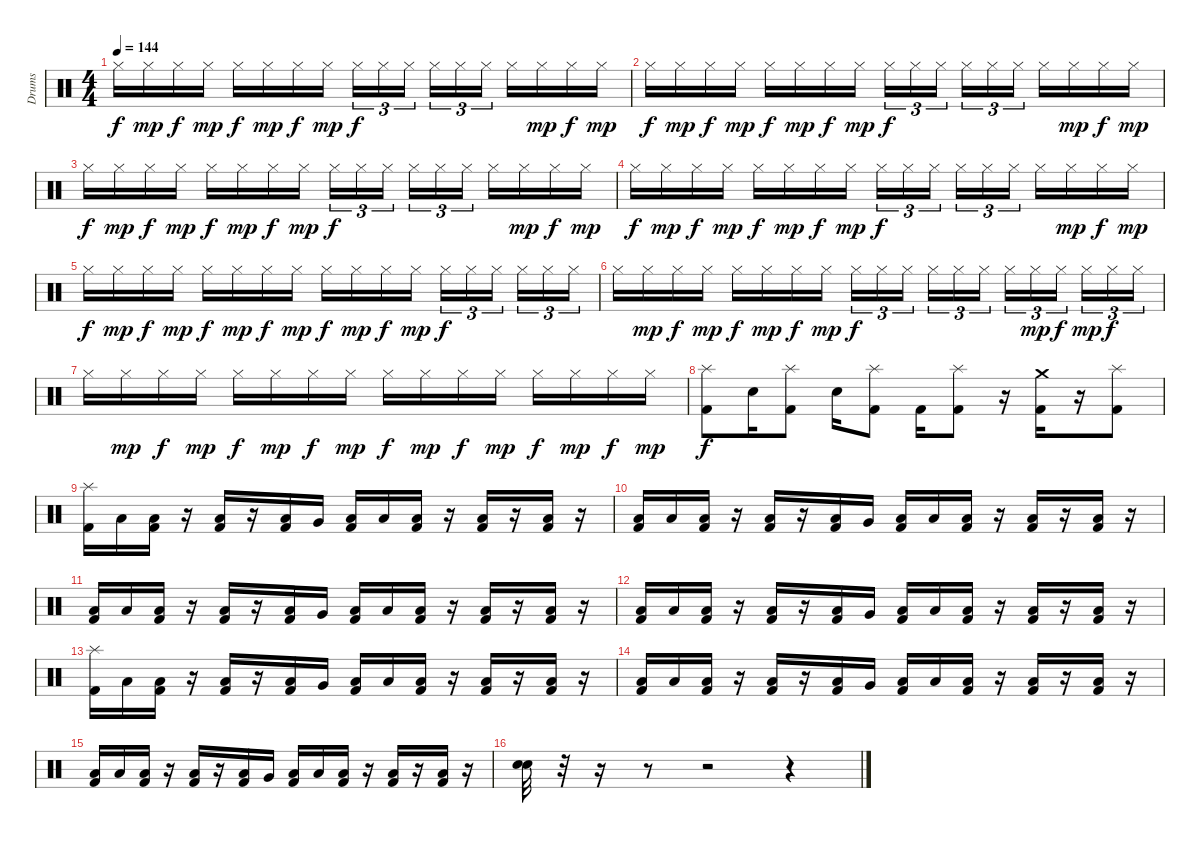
\track ("Drums" "Drums") {instrument percussion}
\staff {score}
\articulation defaults
\ts (4 4)
\tempo 144
\clef neutral
\ks c "Hi-Hat (closed)".16{dy f} "Hi-Hat (closed)".16{dy mp} "Hi-Hat (closed)".16{dy f} "Hi-Hat (closed)".16{dy mp} "Hi-Hat (closed)".16{dy f} "Hi-Hat (closed)".16{dy mp} "Hi-Hat (closed)".16{dy f} "Hi-Hat (closed)".16{dy mp} "Hi-Hat (closed)".16{tu (3 2) dy f} "Hi-Hat (closed)".16{tu (3 2)} "Hi-Hat (closed)".16{tu (3 2)} "Hi-Hat (closed)".16{tu (3 2)} "Hi-Hat (closed)".16{tu (3 2)} "Hi-Hat (closed)".16{tu (3 2)} "Hi-Hat (closed)".16 "Hi-Hat (closed)".16{dy mp} "Hi-Hat (closed)".16{dy f} "Hi-Hat (closed)".16{dy mp}
|
"Hi-Hat (closed)".16{dy f} "Hi-Hat (closed)".16{dy mp} "Hi-Hat (closed)".16{dy f} "Hi-Hat (closed)".16{dy mp} "Hi-Hat (closed)".16{dy f} "Hi-Hat (closed)".16{dy mp} "Hi-Hat (closed)".16{dy f} "Hi-Hat (closed)".16{dy mp} "Hi-Hat (closed)".16{tu (3 2) dy f} "Hi-Hat (closed)".16{tu (3 2)} "Hi-Hat (closed)".16{tu (3 2)} "Hi-Hat (closed)".16{tu (3 2)} "Hi-Hat (closed)".16{tu (3 2)} "Hi-Hat (closed)".16{tu (3 2)} "Hi-Hat (closed)".16 "Hi-Hat (closed)".16{dy mp} "Hi-Hat (closed)".16{dy f} "Hi-Hat (closed)".16{dy mp} |
"Hi-Hat (closed)".16{dy f} "Hi-Hat (closed)".16{dy mp} "Hi-Hat (closed)".16{dy f} "Hi-Hat (closed)".16{dy mp} "Hi-Hat (closed)".16{dy f} "Hi-Hat (closed)".16{dy mp} "Hi-Hat (closed)".16{dy f} "Hi-Hat (closed)".16{dy mp} "Hi-Hat (closed)".16{tu (3 2) dy f} "Hi-Hat (closed)".16{tu (3 2)} "Hi-Hat (closed)".16{tu (3 2)} "Hi-Hat (closed)".16{tu (3 2)} "Hi-Hat (closed)".16{tu (3 2)} "Hi-Hat (closed)".16{tu (3 2)} "Hi-Hat (closed)".16 "Hi-Hat (closed)".16{dy mp} "Hi-Hat (closed)".16{dy f} "Hi-Hat (closed)".16{dy mp} |
"Hi-Hat (closed)".16{dy f} "Hi-Hat (closed)".16{dy mp} "Hi-Hat (closed)".16{dy f} "Hi-Hat (closed)".16{dy mp} "Hi-Hat (closed)".16{dy f} "Hi-Hat (closed)".16{dy mp} "Hi-Hat (closed)".16{dy f} "Hi-Hat (closed)".16{dy mp} "Hi-Hat (closed)".16{tu (3 2) dy f} "Hi-Hat (closed)".16{tu (3 2)} "Hi-Hat (closed)".16{tu (3 2)} "Hi-Hat (closed)".16{tu (3 2)} "Hi-Hat (closed)".16{tu (3 2)} "Hi-Hat (closed)".16{tu (3 2)} "Hi-Hat (closed)".16 "Hi-Hat (closed)".16{dy mp} "Hi-Hat (closed)".16{dy f} "Hi-Hat (closed)".16{dy mp} |
"Hi-Hat (closed)".16{dy f} "Hi-Hat (closed)".16{dy mp} "Hi-Hat (closed)".16{dy f} "Hi-Hat (closed)".16{dy mp} "Hi-Hat (closed)".16{dy f} "Hi-Hat (closed)".16{dy mp} "Hi-Hat (closed)".16{dy f} "Hi-Hat (closed)".16{dy mp} "Hi-Hat (closed)".16{dy f} "Hi-Hat (closed)".16{dy mp} "Hi-Hat (closed)".16{dy f} "Hi-Hat (closed)".16{dy mp} "Hi-Hat (closed)".16{tu (3 2) dy f} "Hi-Hat (closed)".16{tu (3 2)} "Hi-Hat (closed)".16{tu (3 2)} "Hi-Hat (closed)".16{tu (3 2)} "Hi-Hat (closed)".16{tu (3 2)} "Hi-Hat (closed)".16{tu (3 2)} |
"Hi-Hat (closed)".16 "Hi-Hat (closed)".16{dy mp} "Hi-Hat (closed)".16{dy f} "Hi-Hat (closed)".16{dy mp} "Hi-Hat (closed)".16{dy f} "Hi-Hat (closed)".16{dy mp} "Hi-Hat (closed)".16{dy f} "Hi-Hat (closed)".16{dy mp} "Hi-Hat (closed)".16{tu (3 2) dy f} "Hi-Hat (closed)".16{tu (3 2)} "Hi-Hat (closed)".16{tu (3 2)} "Hi-Hat (closed)".16{tu (3 2)} "Hi-Hat (closed)".16{tu (3 2)} "Hi-Hat (closed)".16{tu (3 2)} "Hi-Hat (closed)".16{tu (3 2)} "Hi-Hat (closed)".16{tu (3 2) dy mp} "Hi-Hat (closed)".16{tu (3 2) dy f} "Hi-Hat (closed)".16{tu (3 2) dy mp} "Hi-Hat (closed)".16{tu (3 2) dy f} "Hi-Hat (closed)".16{tu (3 2)} |
"Hi-Hat (closed)".16 "Hi-Hat (closed)".16{dy mp} "Hi-Hat (closed)".16{dy f} "Hi-Hat (closed)".16{dy mp} "Hi-Hat (closed)".16{dy f} "Hi-Hat (closed)".16{dy mp} "Hi-Hat (closed)".16{dy f} "Hi-Hat (closed)".16{dy mp} "Hi-Hat (closed)".16{dy f} "Hi-Hat (closed)".16{dy mp} "Hi-Hat (closed)".16{dy f} "Hi-Hat (closed)".16{dy mp} "Hi-Hat (closed)".16{dy f} "Hi-Hat (closed)".16{dy mp} "Hi-Hat (closed)".16{dy f} "Hi-Hat (closed)".16{dy mp} |
("Splash (hit)" "Kick (hit) 2").8{dy f} "Snare (hit) 2".16 ("Splash (hit)" "Kick (hit) 2").8 "Snare (hit) 2".16 ("Splash (hit)" "Kick (hit) 2").8 "Kick (hit) 2".16 ("Splash (hit)" "Kick (hit) 2").8 r.16 ("Crash medium (hit)" "Kick (hit) 2").16 r.16 ("Splash (hit)" "Kick (hit) 2").8 |
("Splash (hit)" "Kick (hit) 2").16 "Low Tom (hit)".16 ("Low Floor Tom (hit)" "Kick (hit) 2").16 r.16 ("Low Floor Tom (hit)" "Kick (hit) 2").16 r.16 ("Low Floor Tom (hit)" "Kick (hit) 2").16 "Very Low Tom (hit)".16 ("Low Floor Tom (hit)" "Kick (hit) 2").16 "Low Tom (hit)".16 ("Low Floor Tom (hit)" "Kick (hit) 2").16 r.16 ("Low Floor Tom (hit)" "Kick (hit) 2").16 r.16 ("Low Floor Tom (hit)" "Kick (hit) 2").16 r.16 |
("Low Floor Tom (hit)" "Kick (hit) 2").16 "Low Tom (hit)".16 ("Low Floor Tom (hit)" "Kick (hit) 2").16 r.16 ("Low Floor Tom (hit)" "Kick (hit) 2").16 r.16 ("Low Floor Tom (hit)" "Kick (hit) 2").16 "Very Low Tom (hit)".16 ("Low Floor Tom (hit)" "Kick (hit) 2").16 "Low Tom (hit)".16 ("Low Floor Tom (hit)" "Kick (hit) 2").16 r.16 ("Low Floor Tom (hit)" "Kick (hit) 2").16 r.16 ("Low Floor Tom (hit)" "Kick (hit) 2").16 r.16 |
("Low Floor Tom (hit)" "Kick (hit) 2").16 "Low Tom (hit)".16 ("Low Floor Tom (hit)" "Kick (hit) 2").16 r.16 ("Low Floor Tom (hit)" "Kick (hit) 2").16 r.16 ("Low Floor Tom (hit)" "Kick (hit) 2").16 "Very Low Tom (hit)".16 ("Low Floor Tom (hit)" "Kick (hit) 2").16 "Low Tom (hit)".16 ("Low Floor Tom (hit)" "Kick (hit) 2").16 r.16 ("Low Floor Tom (hit)" "Kick (hit) 2").16 r.16 ("Low Floor Tom (hit)" "Kick (hit) 2").16 r.16 |
("Low Floor Tom (hit)" "Kick (hit) 2").16 "Low Tom (hit)".16 ("Low Floor Tom (hit)" "Kick (hit) 2").16 r.16 ("Low Floor Tom (hit)" "Kick (hit) 2").16 r.16 ("Low Floor Tom (hit)" "Kick (hit) 2").16 "Very Low Tom (hit)".16 ("Low Floor Tom (hit)" "Kick (hit) 2").16 "Low Tom (hit)".16 ("Low Floor Tom (hit)" "Kick (hit) 2").16 r.16 ("Low Floor Tom (hit)" "Kick (hit) 2").16 r.16 ("Low Floor Tom (hit)" "Kick (hit) 2").16 r.16 |
("Splash (hit)" "Kick (hit) 2").16 "Low Tom (hit)".16 ("Low Floor Tom (hit)" "Kick (hit) 2").16 r.16 ("Low Floor Tom (hit)" "Kick (hit) 2").16 r.16 ("Low Floor Tom (hit)" "Kick (hit) 2").16 "Very Low Tom (hit)".16 ("Low Floor Tom (hit)" "Kick (hit) 2").16 "Low Tom (hit)".16 ("Low Floor Tom (hit)" "Kick (hit) 2").16 r.16 ("Low Floor Tom (hit)" "Kick (hit) 2").16 r.16 ("Low Floor Tom (hit)" "Kick (hit) 2").16 r.16 |
("Low Floor Tom (hit)" "Kick (hit) 2").16 "Low Tom (hit)".16 ("Low Floor Tom (hit)" "Kick (hit) 2").16 r.16 ("Low Floor Tom (hit)" "Kick (hit) 2").16 r.16 ("Low Floor Tom (hit)" "Kick (hit) 2").16 "Very Low Tom (hit)".16 ("Low Floor Tom (hit)" "Kick (hit) 2").16 "Low Tom (hit)".16 ("Low Floor Tom (hit)" "Kick (hit) 2").16 r.16 ("Low Floor Tom (hit)" "Kick (hit) 2").16 r.16 ("Low Floor Tom (hit)" "Kick (hit) 2").16 r.16 |
("Low Floor Tom (hit)" "Kick (hit) 2").16 "Low Tom (hit)".16 ("Low Floor Tom (hit)" "Kick (hit) 2").16 r.16 ("Low Floor Tom (hit)" "Kick (hit) 2").16 r.16 ("Low Floor Tom (hit)" "Kick (hit) 2").16 "Very Low Tom (hit)".16 ("Low Floor Tom (hit)" "Kick (hit) 2").16 "Low Tom (hit)".16 ("Low Floor Tom (hit)" "Kick (hit) 2").16 r.16 ("Low Floor Tom (hit)" "Kick (hit) 2").16 r.16 ("Low Floor Tom (hit)" "Kick (hit) 2").16 r.16 |
("Electric Snare (hit)" "Snare (hit) 2").32 r.32 r.16 r.8 r.2 r.4
